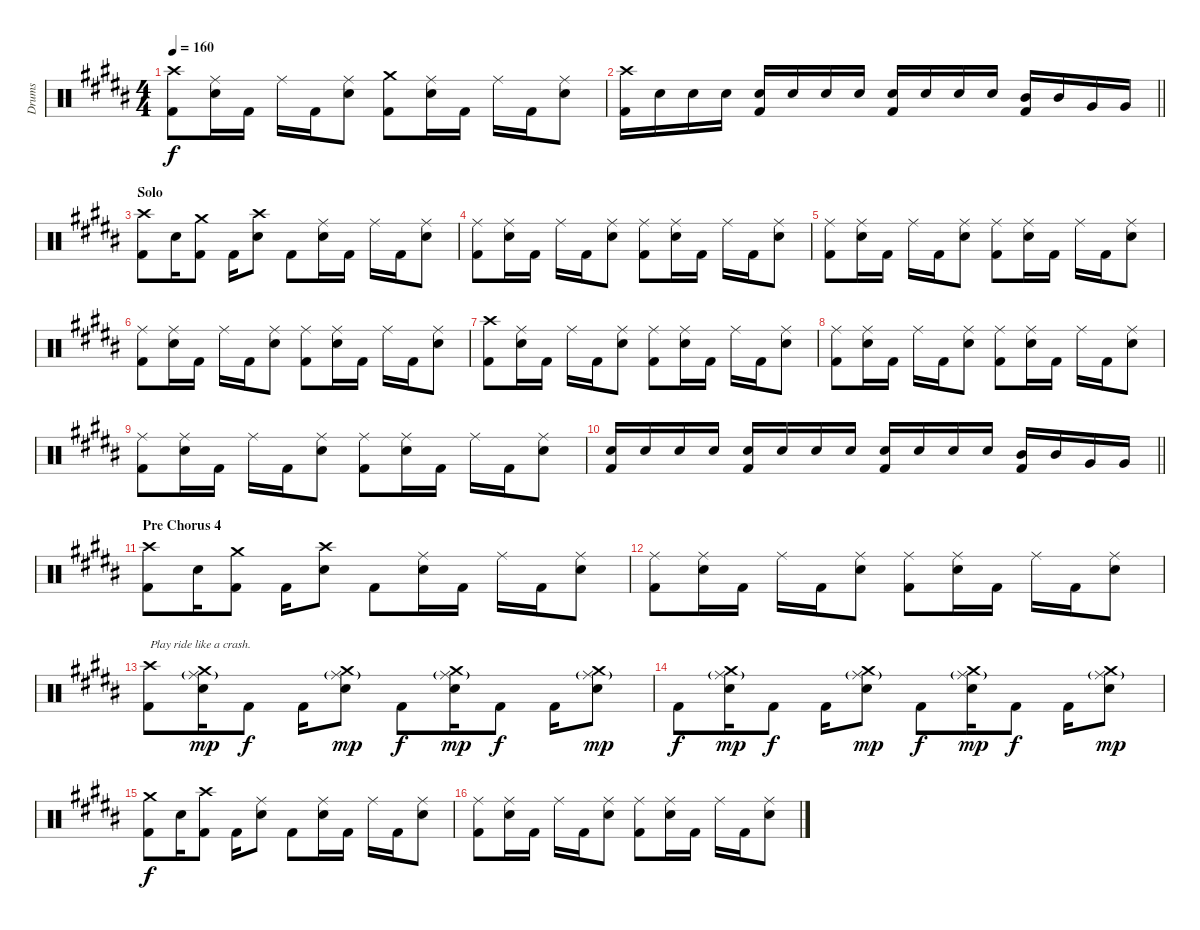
\track ("Drums" "Drums") {instrument percussion}
\staff {score}
\articulation defaults
\ts (4 4)
\tempo 160
\clef neutral
\ks g#minor
("Crash high (hit)" "Kick (hit) 2").8{dy f} ("Ride (middle)" "Electric Snare (hit)").16 "Kick (hit) 2".16 "Ride (middle)".16 "Kick (hit) 2".16 ("Ride (middle)" "Electric Snare (hit)").8 ("Crash medium (hit)" "Kick (hit) 2").8 ("Ride (middle)" "Electric Snare (hit)").16 "Kick (hit) 2".16 "Ride (middle)".16 "Kick (hit) 2".16 ("Ride (middle)" "Electric Snare (hit)").8 |
\barLineRight lightlight
("Crash high (hit)" "Kick (hit) 2").16 "Electric Snare (hit)".16 "Electric Snare (hit)".16 "Electric Snare (hit)".16 ("Electric Snare (hit)" "Kick (hit) 2").16 "Electric Snare (hit)".16 "Electric Snare (hit)".16 "Electric Snare (hit)".16 ("Electric Snare (hit)" "Kick (hit) 2").16 "Electric Snare (hit)".16 "Electric Snare (hit)".16 "Electric Snare (hit)".16 ("Mid Tom (hit)" "Kick (hit) 2").16 "Mid Tom (hit)".16 "Very Low Tom (hit)".16 "Very Low Tom (hit)".16 |
\section ("" "Solo")
("Crash high (hit)" "Kick (hit) 2").8 "Electric Snare (hit)".16 ("Crash medium (hit)" "Kick (hit) 2").8 "Kick (hit) 2".16 ("Crash high (hit)" "Electric Snare (hit)").8 "Kick (hit) 2".8 ("Ride (middle)" "Electric Snare (hit)").16 "Kick (hit) 2".16 "Ride (middle)".16 "Kick (hit) 2".16 ("Ride (middle)" "Electric Snare (hit)").8 |
("Ride (middle)" "Kick (hit) 2").8 ("Ride (middle)" "Electric Snare (hit)").16 "Kick (hit) 2".16 "Ride (middle)".16 "Kick (hit) 2".16 ("Ride (middle)" "Electric Snare (hit)").8 ("Ride (middle)" "Kick (hit) 2").8 ("Ride (middle)" "Electric Snare (hit)").16 "Kick (hit) 2".16 "Ride (middle)".16 "Kick (hit) 2".16 ("Ride (middle)" "Electric Snare (hit)").8 |
("Ride (middle)" "Kick (hit) 2").8 ("Ride (middle)" "Electric Snare (hit)").16 "Kick (hit) 2".16 "Ride (middle)".16 "Kick (hit) 2".16 ("Ride (middle)" "Electric Snare (hit)").8 ("Ride (middle)" "Kick (hit) 2").8 ("Ride (middle)" "Electric Snare (hit)").16 "Kick (hit) 2".16 "Ride (middle)".16 "Kick (hit) 2".16 ("Ride (middle)" "Electric Snare (hit)").8 |
("Ride (middle)" "Kick (hit) 2").8 ("Ride (middle)" "Electric Snare (hit)").16 "Kick (hit) 2".16 "Ride (middle)".16 "Kick (hit) 2".16 ("Ride (middle)" "Electric Snare (hit)").8 ("Ride (middle)" "Kick (hit) 2").8 ("Ride (middle)" "Electric Snare (hit)").16 "Kick (hit) 2".16 "Ride (middle)".16 "Kick (hit) 2".16 ("Ride (middle)" "Electric Snare (hit)").8 |
("Crash high (hit)" "Kick (hit) 2").8 ("Ride (middle)" "Electric Snare (hit)").16 "Kick (hit) 2".16 "Ride (middle)".16 "Kick (hit) 2".16 ("Ride (middle)" "Electric Snare (hit)").8 ("Ride (middle)" "Kick (hit) 2").8 ("Ride (middle)" "Electric Snare (hit)").16 "Kick (hit) 2".16 "Ride (middle)".16 "Kick (hit) 2".16 ("Ride (middle)" "Electric Snare (hit)").8 |
("Ride (middle)" "Kick (hit) 2").8 ("Ride (middle)" "Electric Snare (hit)").16 "Kick (hit) 2".16 "Ride (middle)".16 "Kick (hit) 2".16 ("Ride (middle)" "Electric Snare (hit)").8 ("Ride (middle)" "Kick (hit) 2").8 ("Ride (middle)" "Electric Snare (hit)").16 "Kick (hit) 2".16 "Ride (middle)".16 "Kick (hit) 2".16 ("Ride (middle)" "Electric Snare (hit)").8 |
("Ride (middle)" "Kick (hit) 2").8 ("Ride (middle)" "Electric Snare (hit)").16 "Kick (hit) 2".16 "Ride (middle)".16 "Kick (hit) 2".16 ("Ride (middle)" "Electric Snare (hit)").8 ("Ride (middle)" "Kick (hit) 2").8 ("Ride (middle)" "Electric Snare (hit)").16 "Kick (hit) 2".16 "Ride (middle)".16 "Kick (hit) 2".16 ("Ride (middle)" "Electric Snare (hit)").8 |
\barLineRight lightlight
("Electric Snare (hit)" "Kick (hit) 2").16 "Electric Snare (hit)".16 "Electric Snare (hit)".16 "Electric Snare (hit)".16 ("Electric Snare (hit)" "Kick (hit) 2").16 "Electric Snare (hit)".16 "Electric Snare (hit)".16 "Electric Snare (hit)".16 ("Electric Snare (hit)" "Kick (hit) 2").16 "Electric Snare (hit)".16 "Electric Snare (hit)".16 "Electric Snare (hit)".16 ("Mid Tom (hit)" "Kick (hit) 2").16 "Mid Tom (hit)".16 "Very Low Tom (hit)".16 "Very Low Tom (hit)".16 |
\section ("" "Pre Chorus 4")
("Crash high (hit)" "Kick (hit) 2").8 "Electric Snare (hit)".16 ("Crash medium (hit)" "Kick (hit) 2").8 "Kick (hit) 2".16 ("Crash high (hit)" "Electric Snare (hit)").8 "Kick (hit) 2".8 ("Ride (middle)" "Electric Snare (hit)").16 "Kick (hit) 2".16 "Ride (middle)".16 "Kick (hit) 2".16 ("Ride (middle)" "Electric Snare (hit)").8 |
("Ride (middle)" "Kick (hit) 2").8 ("Ride (middle)" "Electric Snare (hit)").16 "Kick (hit) 2".16 "Ride (middle)".16 "Kick (hit) 2".16 ("Ride (middle)" "Electric Snare (hit)").8 ("Ride (middle)" "Kick (hit) 2").8 ("Ride (middle)" "Electric Snare (hit)").16 "Kick (hit) 2".16 "Ride (middle)".16 "Kick (hit) 2".16 ("Ride (middle)" "Electric Snare (hit)").8 |
("Crash high (hit)" "Kick (hit) 2").8{txt "Play ride like a crash."} ("Ride (middle)"{g} "Crash medium (hit)" "Electric Snare (hit)").16{dy mp} "Kick (hit) 2".8{dy f} "Kick (hit) 2".16 ("Ride (middle)"{g} "Crash medium (hit)" "Electric Snare (hit)").8{dy mp} "Kick (hit) 2".8{dy f} ("Ride (middle)"{g} "Crash medium (hit)" "Electric Snare (hit)").16{dy mp} "Kick (hit) 2".8{dy f} "Kick (hit) 2".16 ("Ride (middle)"{g} "Crash medium (hit)" "Electric Snare (hit)").8{dy mp} |
"Kick (hit) 2".8{dy f} ("Ride (middle)"{g} "Crash medium (hit)" "Electric Snare (hit)").16{dy mp} "Kick (hit) 2".8{dy f} "Kick (hit) 2".16 ("Ride (middle)"{g} "Crash medium (hit)" "Electric Snare (hit)").8{dy mp} "Kick (hit) 2".8{dy f} ("Ride (middle)"{g} "Crash medium (hit)" "Electric Snare (hit)").16{dy mp} "Kick (hit) 2".8{dy f} "Kick (hit) 2".16 ("Ride (middle)"{g} "Crash medium (hit)" "Electric Snare (hit)").8{dy mp} |
("Crash medium (hit)" "Kick (hit) 2").8{dy f} "Electric Snare (hit)".16 ("Crash high (hit)" "Kick (hit) 2").8 "Kick (hit) 2".16 ("Ride (middle)" "Electric Snare (hit)").8 "Kick (hit) 2".8 ("Ride (middle)" "Electric Snare (hit)").16 "Kick (hit) 2".16 "Ride (middle)".16 "Kick (hit) 2".16 ("Ride (middle)" "Electric Snare (hit)").8 |
("Ride (middle)" "Kick (hit) 2").8 ("Ride (middle)" "Electric Snare (hit)").16 "Kick (hit) 2".16 "Ride (middle)".16 "Kick (hit) 2".16 ("Ride (middle)" "Electric Snare (hit)").8 ("Ride (middle)" "Kick (hit) 2").8 ("Ride (middle)" "Electric Snare (hit)").16 "Kick (hit) 2".16 "Ride (middle)".16 "Kick (hit) 2".16 ("Ride (middle)" "Electric Snare (hit)").8
